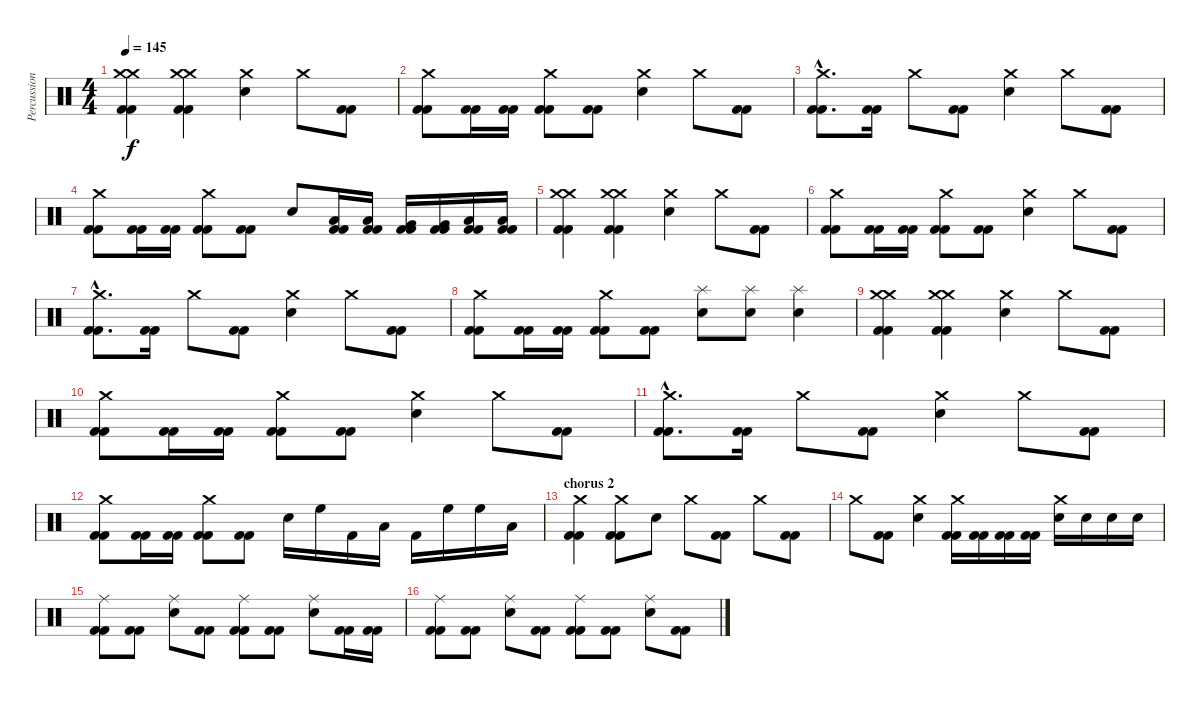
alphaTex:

\track ("Percussion" "Percussion") {instrument percussion}
\staff {score}
\articulation defaults
\ts (4 4)
\tempo 145
\clef neutral
\ks c
("Crash medium (hit)" "Crash medium (hit)" "Kick (hit) 2" "Kick (hit) 2").4{dy f} ("Crash medium (hit)" "Crash medium (hit)" "Kick (hit) 2" "Kick (hit) 2").4 ("Crash medium (hit)" "Electric Snare (hit)").4 "Crash medium (hit)".8 ("Kick (hit) 2" "Kick (hit) 2").8 |
("Crash medium (hit)" "Kick (hit) 2" "Kick (hit) 2").8 ("Kick (hit) 2" "Kick (hit) 2").16 ("Kick (hit) 2" "Kick (hit) 2").16 ("Crash medium (hit)" "Kick (hit) 2" "Kick (hit) 2").8 ("Kick (hit) 2" "Kick (hit) 2").8 ("Crash medium (hit)" "Electric Snare (hit)").4 "Crash medium (hit)".8 ("Kick (hit) 2" "Kick (hit) 2").8 |
("Crash medium (hit)"{hac} "Kick (hit) 2"{hac} "Kick (hit) 2"{hac}).8{d} ("Kick (hit) 2" "Kick (hit) 2").16 "Crash medium (hit)".8 ("Kick (hit) 2" "Kick (hit) 2").8 ("Crash medium (hit)" "Electric Snare (hit)").4 "Crash medium (hit)".8 ("Kick (hit) 2" "Kick (hit) 2").8 |
("Crash medium (hit)" "Kick (hit) 2" "Kick (hit) 2").8 ("Kick (hit) 2" "Kick (hit) 2").16 ("Kick (hit) 2" "Kick (hit) 2").16 ("Crash medium (hit)" "Kick (hit) 2" "Kick (hit) 2").8 ("Kick (hit) 2" "Kick (hit) 2").8 "Electric Snare (hit)".8 ("Low Tom (hit)" "Kick (hit) 2" "Kick (hit) 2").16 ("Low Tom (hit)" "Kick (hit) 2" "Kick (hit) 2").16 ("Very Low Tom (hit)" "Kick (hit) 2" "Kick (hit) 2").16 ("Very Low Tom (hit)" "Kick (hit) 2" "Kick (hit) 2").16 ("Low Floor Tom (hit)" "Kick (hit) 2" "Kick (hit) 2").16 ("Low Floor Tom (hit)" "Kick (hit) 2" "Kick (hit) 2").16 |
("Crash medium (hit)" "Crash medium (hit)" "Kick (hit) 2" "Kick (hit) 2").4 ("Crash medium (hit)" "Crash medium (hit)" "Kick (hit) 2" "Kick (hit) 2").4 ("Crash medium (hit)" "Electric Snare (hit)").4 "Crash medium (hit)".8 ("Kick (hit) 2" "Kick (hit) 2").8 |
("Crash medium (hit)" "Kick (hit) 2" "Kick (hit) 2").8 ("Kick (hit) 2" "Kick (hit) 2").16 ("Kick (hit) 2" "Kick (hit) 2").16 ("Crash medium (hit)" "Kick (hit) 2" "Kick (hit) 2").8 ("Kick (hit) 2" "Kick (hit) 2").8 ("Crash medium (hit)" "Electric Snare (hit)").4 "Crash medium (hit)".8 ("Kick (hit) 2" "Kick (hit) 2").8 |
("Crash medium (hit)"{hac} "Kick (hit) 2"{hac} "Kick (hit) 2"{hac}).8{d} ("Kick (hit) 2" "Kick (hit) 2").16 "Crash medium (hit)".8 ("Kick (hit) 2" "Kick (hit) 2").8 ("Crash medium (hit)" "Electric Snare (hit)").4 "Crash medium (hit)".8 ("Kick (hit) 2" "Kick (hit) 2").8 |
("Crash medium (hit)" "Kick (hit) 2" "Kick (hit) 2").8 ("Kick (hit) 2" "Kick (hit) 2").16 ("Kick (hit) 2" "Kick (hit) 2").16 ("Crash medium (hit)" "Kick (hit) 2" "Kick (hit) 2").8 ("Kick (hit) 2" "Kick (hit) 2").8 ("Splash (hit)" "Electric Snare (hit)").8 ("Splash (hit)" "Electric Snare (hit)").8 ("Splash (hit)" "Electric Snare (hit)").4 |
("Crash medium (hit)" "Crash medium (hit)" "Kick (hit) 2" "Kick (hit) 2").4 ("Crash medium (hit)" "Crash medium (hit)" "Kick (hit) 2" "Kick (hit) 2").4 ("Crash medium (hit)" "Electric Snare (hit)").4 "Crash medium (hit)".8 ("Kick (hit) 2" "Kick (hit) 2").8 |
("Crash medium (hit)" "Kick (hit) 2" "Kick (hit) 2").8 ("Kick (hit) 2" "Kick (hit) 2").16 ("Kick (hit) 2" "Kick (hit) 2").16 ("Crash medium (hit)" "Kick (hit) 2" "Kick (hit) 2").8 ("Kick (hit) 2" "Kick (hit) 2").8 ("Crash medium (hit)" "Electric Snare (hit)").4 "Crash medium (hit)".8 ("Kick (hit) 2" "Kick (hit) 2").8 |
("Crash medium (hit)"{hac} "Kick (hit) 2"{hac} "Kick (hit) 2"{hac}).8{d} ("Kick (hit) 2" "Kick (hit) 2").16 "Crash medium (hit)".8 ("Kick (hit) 2" "Kick (hit) 2").8 ("Crash medium (hit)" "Electric Snare (hit)").4 "Crash medium (hit)".8 ("Kick (hit) 2" "Kick (hit) 2").8 |
("Crash medium (hit)" "Kick (hit) 2" "Kick (hit) 2").8 ("Kick (hit) 2" "Kick (hit) 2").16 ("Kick (hit) 2" "Kick (hit) 2").16 ("Crash medium (hit)" "Kick (hit) 2" "Kick (hit) 2").8 ("Kick (hit) 2" "Kick (hit) 2").8 "Electric Snare (hit)".16 "High Floor Tom (hit)".16 "Kick (hit) 2".16 "Low Tom (hit)".16 "Kick (hit) 2".16 "High Floor Tom (hit)".16 "High Floor Tom (hit)".16 "Low Tom (hit)".16 |
\section ("" "chorus 2")
("Crash medium (hit)" "Kick (hit) 2" "Kick (hit) 2").4 ("Crash medium (hit)" "Kick (hit) 2" "Kick (hit) 2").8 "Electric Snare (hit)".8 "Crash medium (hit)".8 ("Kick (hit) 2" "Kick (hit) 2").8 "Crash medium (hit)".8 ("Kick (hit) 2" "Kick (hit) 2").8 |
"Crash medium (hit)".8 ("Kick (hit) 2" "Kick (hit) 2").8 ("Crash medium (hit)" "Electric Snare (hit)").4 ("Crash medium (hit)" "Kick (hit) 2" "Kick (hit) 2").16 ("Kick (hit) 2" "Kick (hit) 2").16 ("Kick (hit) 2" "Kick (hit) 2").16 ("Kick (hit) 2" "Kick (hit) 2").16 ("Crash medium (hit)" "Electric Snare (hit)").16 "Electric Snare (hit)".16 "Electric Snare (hit)".16 "Electric Snare (hit)".16 |
("Ride (middle)" "Kick (hit) 2" "Kick (hit) 2").8 ("Kick (hit) 2" "Kick (hit) 2").8 ("Ride (middle)" "Electric Snare (hit)").8 ("Kick (hit) 2" "Kick (hit) 2").8 ("Ride (middle)" "Kick (hit) 2" "Kick (hit) 2").8 ("Kick (hit) 2" "Kick (hit) 2").8 ("Ride (middle)" "Electric Snare (hit)").8 ("Kick (hit) 2" "Kick (hit) 2").16 ("Kick (hit) 2" "Kick (hit) 2").16 |
("Ride (middle)" "Kick (hit) 2" "Kick (hit) 2").8 ("Kick (hit) 2" "Kick (hit) 2").8 ("Ride (middle)" "Electric Snare (hit)").8 ("Kick (hit) 2" "Kick (hit) 2").8 ("Ride (middle)" "Kick (hit) 2" "Kick (hit) 2").8 ("Kick (hit) 2" "Kick (hit) 2").8 ("Ride (middle)" "Electric Snare (hit)").8 ("Kick (hit) 2" "Kick (hit) 2").8
